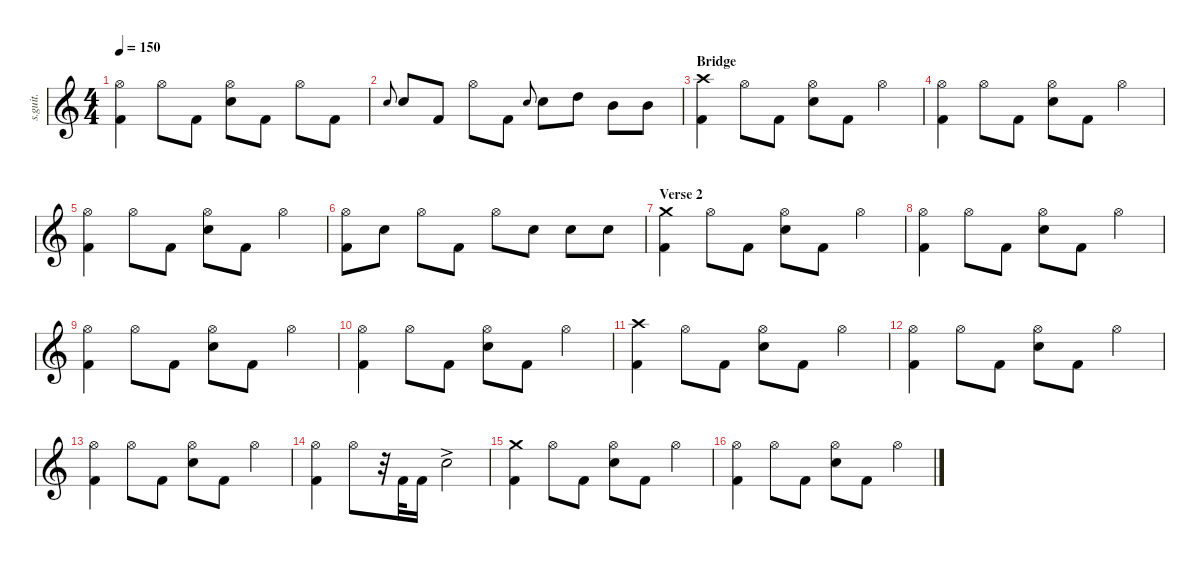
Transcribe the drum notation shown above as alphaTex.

\defaultSystemsLayout 4
\hideDynamics
\bracketExtendMode nobrackets
\track ("Christoph Schneider" "s.guit.") {instrument percussion}
\staff {score}
\articulation defaults
\ts (4 4)
\tempo 150
\clef g2
\ks c
("Kick (hit) 2" "Hi-Hat (open)").4{lyrics (0 "") lyrics (1 "") lyrics (2 "") lyrics (3 "") lyrics (4 "") dy ff} "Hi-Hat (open)".8{lyrics (0 "") lyrics (1 "") lyrics (2 "") lyrics (3 "") lyrics (4 "")} "Kick (hit) 2".8{lyrics (0 "") lyrics (1 "") lyrics (2 "") lyrics (3 "") lyrics (4 "")} ("Snare (hit) 2" "Hi-Hat (open)").8{lyrics (0 "") lyrics (1 "") lyrics (2 "") lyrics (3 "") lyrics (4 "")} "Kick (hit) 2".8{lyrics (0 "") lyrics (1 "") lyrics (2 "") lyrics (3 "") lyrics (4 "")} "Hi-Hat (open)".8{lyrics (0 "") lyrics (1 "") lyrics (2 "") lyrics (3 "") lyrics (4 "")} "Kick (hit) 2".8{lyrics (0 "") lyrics (1 "") lyrics (2 "") lyrics (3 "") lyrics (4 "")} |
"Snare (hit) 2".8{lyrics (0 "") lyrics (1 "") lyrics (2 "") lyrics (3 "") lyrics (4 "") gr onbeat} "Snare (hit) 2".8{lyrics (0 "") lyrics (1 "") lyrics (2 "") lyrics (3 "") lyrics (4 "")} "Kick (hit) 2".8{lyrics (0 "") lyrics (1 "") lyrics (2 "") lyrics (3 "") lyrics (4 "")} "Hi-Hat (open)".8{lyrics (0 "") lyrics (1 "") lyrics (2 "") lyrics (3 "") lyrics (4 "")} "Kick (hit) 2".8{lyrics (0 "") lyrics (1 "") lyrics (2 "") lyrics (3 "") lyrics (4 "")} "Snare (hit) 2".8{lyrics (0 "") lyrics (1 "") lyrics (2 "") lyrics (3 "") lyrics (4 "") gr onbeat} "Snare (hit) 2".8{lyrics (0 "") lyrics (1 "") lyrics (2 "") lyrics (3 "") lyrics (4 "")} "High Tom (hit)".8{lyrics (0 "") lyrics (1 "") lyrics (2 "") lyrics (3 "") lyrics (4 "")} "Mid Tom (hit)".8{lyrics (0 "") lyrics (1 "") lyrics (2 "") lyrics (3 "") lyrics (4 "")} "Mid Tom (hit)".8{lyrics (0 "") lyrics (1 "") lyrics (2 "") lyrics (3 "") lyrics (4 "")} |
\section ("" "Bridge")
("Kick (hit) 2" "Crash high (hit)").4{lyrics (0 "") lyrics (1 "") lyrics (2 "") lyrics (3 "") lyrics (4 "")} "Hi-Hat (open)".8{lyrics (0 "") lyrics (1 "") lyrics (2 "") lyrics (3 "") lyrics (4 "")} "Kick (hit) 2".8{lyrics (0 "") lyrics (1 "") lyrics (2 "") lyrics (3 "") lyrics (4 "")} ("Snare (hit) 2" "Hi-Hat (open)").8{lyrics (0 "") lyrics (1 "") lyrics (2 "") lyrics (3 "") lyrics (4 "")} "Kick (hit) 2".8{lyrics (0 "") lyrics (1 "") lyrics (2 "") lyrics (3 "") lyrics (4 "")} "Hi-Hat (open)".4{lyrics (0 "") lyrics (1 "") lyrics (2 "") lyrics (3 "") lyrics (4 "")} |
("Kick (hit) 2" "Hi-Hat (open)").4{lyrics (0 "") lyrics (1 "") lyrics (2 "") lyrics (3 "") lyrics (4 "")} "Hi-Hat (open)".8{lyrics (0 "") lyrics (1 "") lyrics (2 "") lyrics (3 "") lyrics (4 "")} "Kick (hit) 2".8{lyrics (0 "") lyrics (1 "") lyrics (2 "") lyrics (3 "") lyrics (4 "")} ("Snare (hit) 2" "Hi-Hat (open)").8{lyrics (0 "") lyrics (1 "") lyrics (2 "") lyrics (3 "") lyrics (4 "")} "Kick (hit) 2".8{lyrics (0 "") lyrics (1 "") lyrics (2 "") lyrics (3 "") lyrics (4 "")} "Hi-Hat (open)".4{lyrics (0 "") lyrics (1 "") lyrics (2 "") lyrics (3 "") lyrics (4 "")} |
("Kick (hit) 2" "Hi-Hat (open)").4{lyrics (0 "") lyrics (1 "") lyrics (2 "") lyrics (3 "") lyrics (4 "")} "Hi-Hat (open)".8{lyrics (0 "") lyrics (1 "") lyrics (2 "") lyrics (3 "") lyrics (4 "")} "Kick (hit) 2".8{lyrics (0 "") lyrics (1 "") lyrics (2 "") lyrics (3 "") lyrics (4 "")} ("Snare (hit) 2" "Hi-Hat (open)").8{lyrics (0 "") lyrics (1 "") lyrics (2 "") lyrics (3 "") lyrics (4 "")} "Kick (hit) 2".8{lyrics (0 "") lyrics (1 "") lyrics (2 "") lyrics (3 "") lyrics (4 "")} "Hi-Hat (open)".4{lyrics (0 "") lyrics (1 "") lyrics (2 "") lyrics (3 "") lyrics (4 "")} |
("Kick (hit) 2" "Hi-Hat (open)").8{lyrics (0 "") lyrics (1 "") lyrics (2 "") lyrics (3 "") lyrics (4 "")} "Snare (hit) 2".8{lyrics (0 "") lyrics (1 "") lyrics (2 "") lyrics (3 "") lyrics (4 "")} "Hi-Hat (open)".8{lyrics (0 "") lyrics (1 "") lyrics (2 "") lyrics (3 "") lyrics (4 "")} "Kick (hit) 2".8{lyrics (0 "") lyrics (1 "") lyrics (2 "") lyrics (3 "") lyrics (4 "")} "Hi-Hat (open)".8{lyrics (0 "") lyrics (1 "") lyrics (2 "") lyrics (3 "") lyrics (4 "")} "Snare (hit) 2".8{lyrics (0 "") lyrics (1 "") lyrics (2 "") lyrics (3 "") lyrics (4 "")} "Snare (hit) 2".8{lyrics (0 "") lyrics (1 "") lyrics (2 "") lyrics (3 "") lyrics (4 "")} "Snare (hit) 2".8{lyrics (0 "") lyrics (1 "") lyrics (2 "") lyrics (3 "") lyrics (4 "")} |
\section ("" "Verse 2")
("Kick (hit) 2" "Crash medium (hit)").4{lyrics (0 "") lyrics (1 "") lyrics (2 "") lyrics (3 "") lyrics (4 "")} "Hi-Hat (open)".8{lyrics (0 "") lyrics (1 "") lyrics (2 "") lyrics (3 "") lyrics (4 "")} "Kick (hit) 2".8{lyrics (0 "") lyrics (1 "") lyrics (2 "") lyrics (3 "") lyrics (4 "")} ("Snare (hit) 2" "Hi-Hat (open)").8{lyrics (0 "") lyrics (1 "") lyrics (2 "") lyrics (3 "") lyrics (4 "")} "Kick (hit) 2".8{lyrics (0 "") lyrics (1 "") lyrics (2 "") lyrics (3 "") lyrics (4 "")} "Hi-Hat (open)".4{lyrics (0 "") lyrics (1 "") lyrics (2 "") lyrics (3 "") lyrics (4 "")} |
("Kick (hit) 2" "Hi-Hat (open)").4{lyrics (0 "") lyrics (1 "") lyrics (2 "") lyrics (3 "") lyrics (4 "")} "Hi-Hat (open)".8{lyrics (0 "") lyrics (1 "") lyrics (2 "") lyrics (3 "") lyrics (4 "")} "Kick (hit) 2".8{lyrics (0 "") lyrics (1 "") lyrics (2 "") lyrics (3 "") lyrics (4 "")} ("Snare (hit) 2" "Hi-Hat (open)").8{lyrics (0 "") lyrics (1 "") lyrics (2 "") lyrics (3 "") lyrics (4 "")} "Kick (hit) 2".8{lyrics (0 "") lyrics (1 "") lyrics (2 "") lyrics (3 "") lyrics (4 "")} "Hi-Hat (open)".4{lyrics (0 "") lyrics (1 "") lyrics (2 "") lyrics (3 "") lyrics (4 "")} |
("Kick (hit) 2" "Hi-Hat (open)").4{lyrics (0 "") lyrics (1 "") lyrics (2 "") lyrics (3 "") lyrics (4 "")} "Hi-Hat (open)".8{lyrics (0 "") lyrics (1 "") lyrics (2 "") lyrics (3 "") lyrics (4 "")} "Kick (hit) 2".8{lyrics (0 "") lyrics (1 "") lyrics (2 "") lyrics (3 "") lyrics (4 "")} ("Snare (hit) 2" "Hi-Hat (open)").8{lyrics (0 "") lyrics (1 "") lyrics (2 "") lyrics (3 "") lyrics (4 "")} "Kick (hit) 2".8{lyrics (0 "") lyrics (1 "") lyrics (2 "") lyrics (3 "") lyrics (4 "")} "Hi-Hat (open)".4{lyrics (0 "") lyrics (1 "") lyrics (2 "") lyrics (3 "") lyrics (4 "")} |
("Kick (hit) 2" "Hi-Hat (open)").4{lyrics (0 "") lyrics (1 "") lyrics (2 "") lyrics (3 "") lyrics (4 "")} "Hi-Hat (open)".8{lyrics (0 "") lyrics (1 "") lyrics (2 "") lyrics (3 "") lyrics (4 "")} "Kick (hit) 2".8{lyrics (0 "") lyrics (1 "") lyrics (2 "") lyrics (3 "") lyrics (4 "")} ("Snare (hit) 2" "Hi-Hat (open)").8{lyrics (0 "") lyrics (1 "") lyrics (2 "") lyrics (3 "") lyrics (4 "")} "Kick (hit) 2".8{lyrics (0 "") lyrics (1 "") lyrics (2 "") lyrics (3 "") lyrics (4 "")} "Hi-Hat (open)".4{lyrics (0 "") lyrics (1 "") lyrics (2 "") lyrics (3 "") lyrics (4 "")} |
("Kick (hit) 2" "Crash high (hit)").4{lyrics (0 "") lyrics (1 "") lyrics (2 "") lyrics (3 "") lyrics (4 "")} "Hi-Hat (open)".8{lyrics (0 "") lyrics (1 "") lyrics (2 "") lyrics (3 "") lyrics (4 "")} "Kick (hit) 2".8{lyrics (0 "") lyrics (1 "") lyrics (2 "") lyrics (3 "") lyrics (4 "")} ("Snare (hit) 2" "Hi-Hat (open)").8{lyrics (0 "") lyrics (1 "") lyrics (2 "") lyrics (3 "") lyrics (4 "")} "Kick (hit) 2".8{lyrics (0 "") lyrics (1 "") lyrics (2 "") lyrics (3 "") lyrics (4 "")} "Hi-Hat (open)".4{lyrics (0 "") lyrics (1 "") lyrics (2 "") lyrics (3 "") lyrics (4 "")} |
("Kick (hit) 2" "Hi-Hat (open)").4{lyrics (0 "") lyrics (1 "") lyrics (2 "") lyrics (3 "") lyrics (4 "")} "Hi-Hat (open)".8{lyrics (0 "") lyrics (1 "") lyrics (2 "") lyrics (3 "") lyrics (4 "")} "Kick (hit) 2".8{lyrics (0 "") lyrics (1 "") lyrics (2 "") lyrics (3 "") lyrics (4 "")} ("Snare (hit) 2" "Hi-Hat (open)").8{lyrics (0 "") lyrics (1 "") lyrics (2 "") lyrics (3 "") lyrics (4 "")} "Kick (hit) 2".8{lyrics (0 "") lyrics (1 "") lyrics (2 "") lyrics (3 "") lyrics (4 "")} "Hi-Hat (open)".4{lyrics (0 "") lyrics (1 "") lyrics (2 "") lyrics (3 "") lyrics (4 "")} |
("Kick (hit) 2" "Hi-Hat (open)").4{lyrics (0 "") lyrics (1 "") lyrics (2 "") lyrics (3 "") lyrics (4 "")} "Hi-Hat (open)".8{lyrics (0 "") lyrics (1 "") lyrics (2 "") lyrics (3 "") lyrics (4 "")} "Kick (hit) 2".8{lyrics (0 "") lyrics (1 "") lyrics (2 "") lyrics (3 "") lyrics (4 "")} ("Snare (hit) 2" "Hi-Hat (open)").8{lyrics (0 "") lyrics (1 "") lyrics (2 "") lyrics (3 "") lyrics (4 "")} "Kick (hit) 2".8{lyrics (0 "") lyrics (1 "") lyrics (2 "") lyrics (3 "") lyrics (4 "")} "Hi-Hat (open)".4{lyrics (0 "") lyrics (1 "") lyrics (2 "") lyrics (3 "") lyrics (4 "")} |
("Hi-Hat (open)" "Kick (hit) 2").4{lyrics (0 "") lyrics (1 "") lyrics (2 "") lyrics (3 "") lyrics (4 "")} "Hi-Hat (open)".8{lyrics (0 "") lyrics (1 "") lyrics (2 "") lyrics (3 "") lyrics (4 "")} r.32 "Kick (hit) 2".32{lyrics (0 "") lyrics (1 "") lyrics (2 "") lyrics (3 "") lyrics (4 "")} "Kick (hit) 2".16{lyrics (0 "") lyrics (1 "") lyrics (2 "") lyrics (3 "") lyrics (4 "")} "Snare (hit) 2"{ac}.2{lyrics (0 "") lyrics (1 "") lyrics (2 "") lyrics (3 "") lyrics (4 "")} |
("Kick (hit) 2" "Crash medium (hit)").4{lyrics (0 "") lyrics (1 "") lyrics (2 "") lyrics (3 "") lyrics (4 "")} "Hi-Hat (open)".8{lyrics (0 "") lyrics (1 "") lyrics (2 "") lyrics (3 "") lyrics (4 "")} "Kick (hit) 2".8{lyrics (0 "") lyrics (1 "") lyrics (2 "") lyrics (3 "") lyrics (4 "")} ("Snare (hit) 2" "Hi-Hat (open)").8{lyrics (0 "") lyrics (1 "") lyrics (2 "") lyrics (3 "") lyrics (4 "")} "Kick (hit) 2".8{lyrics (0 "") lyrics (1 "") lyrics (2 "") lyrics (3 "") lyrics (4 "")} "Hi-Hat (open)".4{lyrics (0 "") lyrics (1 "") lyrics (2 "") lyrics (3 "") lyrics (4 "")} |
("Kick (hit) 2" "Hi-Hat (open)").4{lyrics (0 "") lyrics (1 "") lyrics (2 "") lyrics (3 "") lyrics (4 "")} "Hi-Hat (open)".8{lyrics (0 "") lyrics (1 "") lyrics (2 "") lyrics (3 "") lyrics (4 "")} "Kick (hit) 2".8{lyrics (0 "") lyrics (1 "") lyrics (2 "") lyrics (3 "") lyrics (4 "")} ("Snare (hit) 2" "Hi-Hat (open)").8{lyrics (0 "") lyrics (1 "") lyrics (2 "") lyrics (3 "") lyrics (4 "")} "Kick (hit) 2".8{lyrics (0 "") lyrics (1 "") lyrics (2 "") lyrics (3 "") lyrics (4 "")} "Hi-Hat (open)".4{lyrics (0 "") lyrics (1 "") lyrics (2 "") lyrics (3 "") lyrics (4 "")}
